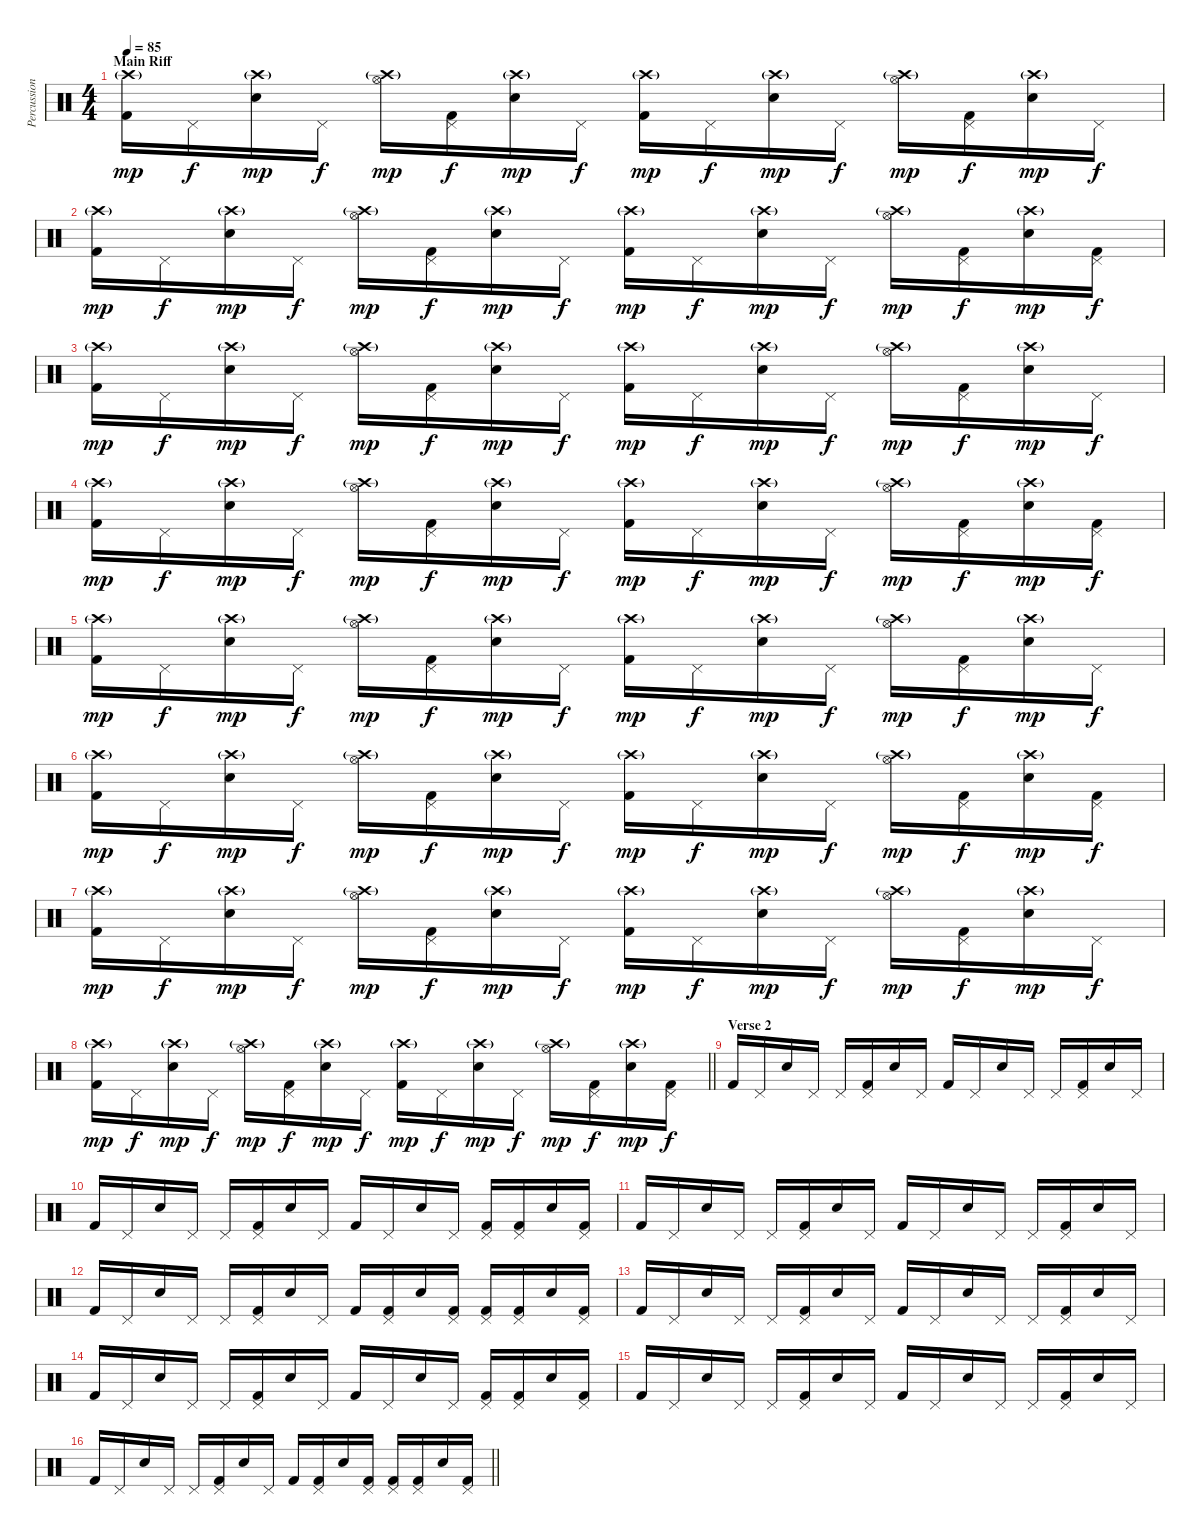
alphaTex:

\track ("Percussion" "Percussion") {instrument percussion}
\staff {score}
\articulation defaults
\ts (4 4)
\section ("" "Main Riff")
\tempo 85
\clef neutral
\ks c
("Crash high (hit)"{g} "Kick (hit) 2").16{dy mp} "Pedal Hi-Hat (hit)".16{dy f} ("Crash high (hit)"{g} "Snare (hit) 2").16{dy mp} "Pedal Hi-Hat (hit)".16{dy f} ("Crash high (hit)"{g} "Hi-Hat (open)").16{dy mp} ("Pedal Hi-Hat (hit)" "Kick (hit) 2").16{dy f} ("Crash high (hit)"{g} "Snare (hit) 2").16{dy mp} "Pedal Hi-Hat (hit)".16{dy f} ("Crash high (hit)"{g} "Kick (hit) 2").16{dy mp} "Pedal Hi-Hat (hit)".16{dy f} ("Crash high (hit)"{g} "Snare (hit) 2").16{dy mp} "Pedal Hi-Hat (hit)".16{dy f} ("Crash high (hit)"{g} "Hi-Hat (open)").16{dy mp} ("Pedal Hi-Hat (hit)" "Kick (hit) 2").16{dy f} ("Crash high (hit)"{g} "Snare (hit) 2").16{dy mp} "Pedal Hi-Hat (hit)".16{dy f} |
("Crash high (hit)"{g} "Kick (hit) 2").16{dy mp} "Pedal Hi-Hat (hit)".16{dy f} ("Crash high (hit)"{g} "Snare (hit) 2").16{dy mp} "Pedal Hi-Hat (hit)".16{dy f} ("Crash high (hit)"{g} "Hi-Hat (open)").16{dy mp} ("Pedal Hi-Hat (hit)" "Kick (hit) 2").16{dy f} ("Crash high (hit)"{g} "Snare (hit) 2").16{dy mp} "Pedal Hi-Hat (hit)".16{dy f} ("Crash high (hit)"{g} "Kick (hit) 2").16{dy mp} "Pedal Hi-Hat (hit)".16{dy f} ("Crash high (hit)"{g} "Snare (hit) 2").16{dy mp} "Pedal Hi-Hat (hit)".16{dy f} ("Crash high (hit)"{g} "Hi-Hat (open)").16{dy mp} ("Pedal Hi-Hat (hit)" "Kick (hit) 2").16{dy f} ("Crash high (hit)"{g} "Snare (hit) 2").16{dy mp} ("Pedal Hi-Hat (hit)" "Kick (hit) 2").16{dy f} |
("Crash high (hit)"{g} "Kick (hit) 2").16{dy mp} "Pedal Hi-Hat (hit)".16{dy f} ("Crash high (hit)"{g} "Snare (hit) 2").16{dy mp} "Pedal Hi-Hat (hit)".16{dy f} ("Crash high (hit)"{g} "Hi-Hat (open)").16{dy mp} ("Pedal Hi-Hat (hit)" "Kick (hit) 2").16{dy f} ("Crash high (hit)"{g} "Snare (hit) 2").16{dy mp} "Pedal Hi-Hat (hit)".16{dy f} ("Crash high (hit)"{g} "Kick (hit) 2").16{dy mp} "Pedal Hi-Hat (hit)".16{dy f} ("Crash high (hit)"{g} "Snare (hit) 2").16{dy mp} "Pedal Hi-Hat (hit)".16{dy f} ("Crash high (hit)"{g} "Hi-Hat (open)").16{dy mp} ("Pedal Hi-Hat (hit)" "Kick (hit) 2").16{dy f} ("Crash high (hit)"{g} "Snare (hit) 2").16{dy mp} "Pedal Hi-Hat (hit)".16{dy f} |
("Crash high (hit)"{g} "Kick (hit) 2").16{dy mp} "Pedal Hi-Hat (hit)".16{dy f} ("Crash high (hit)"{g} "Snare (hit) 2").16{dy mp} "Pedal Hi-Hat (hit)".16{dy f} ("Crash high (hit)"{g} "Hi-Hat (open)").16{dy mp} ("Pedal Hi-Hat (hit)" "Kick (hit) 2").16{dy f} ("Crash high (hit)"{g} "Snare (hit) 2").16{dy mp} "Pedal Hi-Hat (hit)".16{dy f} ("Crash high (hit)"{g} "Kick (hit) 2").16{dy mp} "Pedal Hi-Hat (hit)".16{dy f} ("Crash high (hit)"{g} "Snare (hit) 2").16{dy mp} "Pedal Hi-Hat (hit)".16{dy f} ("Crash high (hit)"{g} "Hi-Hat (open)").16{dy mp} ("Pedal Hi-Hat (hit)" "Kick (hit) 2").16{dy f} ("Crash high (hit)"{g} "Snare (hit) 2").16{dy mp} ("Pedal Hi-Hat (hit)" "Kick (hit) 2").16{dy f} |
("Crash high (hit)"{g} "Kick (hit) 2").16{dy mp} "Pedal Hi-Hat (hit)".16{dy f} ("Crash high (hit)"{g} "Snare (hit) 2").16{dy mp} "Pedal Hi-Hat (hit)".16{dy f} ("Crash high (hit)"{g} "Hi-Hat (open)").16{dy mp} ("Pedal Hi-Hat (hit)" "Kick (hit) 2").16{dy f} ("Crash high (hit)"{g} "Snare (hit) 2").16{dy mp} "Pedal Hi-Hat (hit)".16{dy f} ("Crash high (hit)"{g} "Kick (hit) 2").16{dy mp} "Pedal Hi-Hat (hit)".16{dy f} ("Crash high (hit)"{g} "Snare (hit) 2").16{dy mp} "Pedal Hi-Hat (hit)".16{dy f} ("Crash high (hit)"{g} "Hi-Hat (open)").16{dy mp} ("Pedal Hi-Hat (hit)" "Kick (hit) 2").16{dy f} ("Crash high (hit)"{g} "Snare (hit) 2").16{dy mp} "Pedal Hi-Hat (hit)".16{dy f} |
("Crash high (hit)"{g} "Kick (hit) 2").16{dy mp} "Pedal Hi-Hat (hit)".16{dy f} ("Crash high (hit)"{g} "Snare (hit) 2").16{dy mp} "Pedal Hi-Hat (hit)".16{dy f} ("Crash high (hit)"{g} "Hi-Hat (open)").16{dy mp} ("Pedal Hi-Hat (hit)" "Kick (hit) 2").16{dy f} ("Crash high (hit)"{g} "Snare (hit) 2").16{dy mp} "Pedal Hi-Hat (hit)".16{dy f} ("Crash high (hit)"{g} "Kick (hit) 2").16{dy mp} "Pedal Hi-Hat (hit)".16{dy f} ("Crash high (hit)"{g} "Snare (hit) 2").16{dy mp} "Pedal Hi-Hat (hit)".16{dy f} ("Crash high (hit)"{g} "Hi-Hat (open)").16{dy mp} ("Pedal Hi-Hat (hit)" "Kick (hit) 2").16{dy f} ("Crash high (hit)"{g} "Snare (hit) 2").16{dy mp} ("Pedal Hi-Hat (hit)" "Kick (hit) 2").16{dy f} |
("Crash high (hit)"{g} "Kick (hit) 2").16{dy mp} "Pedal Hi-Hat (hit)".16{dy f} ("Crash high (hit)"{g} "Snare (hit) 2").16{dy mp} "Pedal Hi-Hat (hit)".16{dy f} ("Crash high (hit)"{g} "Hi-Hat (open)").16{dy mp} ("Pedal Hi-Hat (hit)" "Kick (hit) 2").16{dy f} ("Crash high (hit)"{g} "Snare (hit) 2").16{dy mp} "Pedal Hi-Hat (hit)".16{dy f} ("Crash high (hit)"{g} "Kick (hit) 2").16{dy mp} "Pedal Hi-Hat (hit)".16{dy f} ("Crash high (hit)"{g} "Snare (hit) 2").16{dy mp} "Pedal Hi-Hat (hit)".16{dy f} ("Crash high (hit)"{g} "Hi-Hat (open)").16{dy mp} ("Pedal Hi-Hat (hit)" "Kick (hit) 2").16{dy f} ("Crash high (hit)"{g} "Snare (hit) 2").16{dy mp} "Pedal Hi-Hat (hit)".16{dy f} |
\barLineRight lightlight
("Crash high (hit)"{g} "Kick (hit) 2").16{dy mp} "Pedal Hi-Hat (hit)".16{dy f} ("Crash high (hit)"{g} "Snare (hit) 2").16{dy mp} "Pedal Hi-Hat (hit)".16{dy f} ("Crash high (hit)"{g} "Hi-Hat (open)").16{dy mp} ("Pedal Hi-Hat (hit)" "Kick (hit) 2").16{dy f} ("Crash high (hit)"{g} "Snare (hit) 2").16{dy mp} "Pedal Hi-Hat (hit)".16{dy f} ("Crash high (hit)"{g} "Kick (hit) 2").16{dy mp} "Pedal Hi-Hat (hit)".16{dy f} ("Crash high (hit)"{g} "Snare (hit) 2").16{dy mp} "Pedal Hi-Hat (hit)".16{dy f} ("Crash high (hit)"{g} "Hi-Hat (open)").16{dy mp} ("Pedal Hi-Hat (hit)" "Kick (hit) 2").16{dy f} ("Crash high (hit)"{g} "Snare (hit) 2").16{dy mp} ("Pedal Hi-Hat (hit)" "Kick (hit) 2").16{dy f} |
\section ("" "Verse 2")
"Kick (hit) 2".16 "Pedal Hi-Hat (hit)".16 "Snare (hit) 2".16 "Pedal Hi-Hat (hit)".16 "Pedal Hi-Hat (hit)".16 ("Pedal Hi-Hat (hit)" "Kick (hit) 2").16 "Snare (hit) 2".16 "Pedal Hi-Hat (hit)".16 "Kick (hit) 2".16 "Pedal Hi-Hat (hit)".16 "Snare (hit) 2".16 "Pedal Hi-Hat (hit)".16 "Pedal Hi-Hat (hit)".16 ("Pedal Hi-Hat (hit)" "Kick (hit) 2").16 "Snare (hit) 2".16 "Pedal Hi-Hat (hit)".16 |
"Kick (hit) 2".16 "Pedal Hi-Hat (hit)".16 "Snare (hit) 2".16 "Pedal Hi-Hat (hit)".16 "Pedal Hi-Hat (hit)".16 ("Pedal Hi-Hat (hit)" "Kick (hit) 2").16 "Snare (hit) 2".16 "Pedal Hi-Hat (hit)".16 "Kick (hit) 2".16 "Pedal Hi-Hat (hit)".16 "Snare (hit) 2".16 "Pedal Hi-Hat (hit)".16 ("Pedal Hi-Hat (hit)" "Kick (hit) 2").16 ("Pedal Hi-Hat (hit)" "Kick (hit) 2").16 "Snare (hit) 2".16 ("Pedal Hi-Hat (hit)" "Kick (hit) 2").16 |
"Kick (hit) 2".16 "Pedal Hi-Hat (hit)".16 "Snare (hit) 2".16 "Pedal Hi-Hat (hit)".16 "Pedal Hi-Hat (hit)".16 ("Pedal Hi-Hat (hit)" "Kick (hit) 2").16 "Snare (hit) 2".16 "Pedal Hi-Hat (hit)".16 "Kick (hit) 2".16 "Pedal Hi-Hat (hit)".16 "Snare (hit) 2".16 "Pedal Hi-Hat (hit)".16 "Pedal Hi-Hat (hit)".16 ("Pedal Hi-Hat (hit)" "Kick (hit) 2").16 "Snare (hit) 2".16 "Pedal Hi-Hat (hit)".16 |
"Kick (hit) 2".16 "Pedal Hi-Hat (hit)".16 "Snare (hit) 2".16 "Pedal Hi-Hat (hit)".16 "Pedal Hi-Hat (hit)".16 ("Pedal Hi-Hat (hit)" "Kick (hit) 2").16 "Snare (hit) 2".16 "Pedal Hi-Hat (hit)".16 "Kick (hit) 2".16 ("Pedal Hi-Hat (hit)" "Kick (hit) 2").16 "Snare (hit) 2".16 ("Pedal Hi-Hat (hit)" "Kick (hit) 2").16 ("Pedal Hi-Hat (hit)" "Kick (hit) 2").16 ("Pedal Hi-Hat (hit)" "Kick (hit) 2").16 "Snare (hit) 2".16 ("Pedal Hi-Hat (hit)" "Kick (hit) 2").16 |
"Kick (hit) 2".16 "Pedal Hi-Hat (hit)".16 "Snare (hit) 2".16 "Pedal Hi-Hat (hit)".16 "Pedal Hi-Hat (hit)".16 ("Pedal Hi-Hat (hit)" "Kick (hit) 2").16 "Snare (hit) 2".16 "Pedal Hi-Hat (hit)".16 "Kick (hit) 2".16 "Pedal Hi-Hat (hit)".16 "Snare (hit) 2".16 "Pedal Hi-Hat (hit)".16 "Pedal Hi-Hat (hit)".16 ("Pedal Hi-Hat (hit)" "Kick (hit) 2").16 "Snare (hit) 2".16 "Pedal Hi-Hat (hit)".16 |
"Kick (hit) 2".16 "Pedal Hi-Hat (hit)".16 "Snare (hit) 2".16 "Pedal Hi-Hat (hit)".16 "Pedal Hi-Hat (hit)".16 ("Pedal Hi-Hat (hit)" "Kick (hit) 2").16 "Snare (hit) 2".16 "Pedal Hi-Hat (hit)".16 "Kick (hit) 2".16 "Pedal Hi-Hat (hit)".16 "Snare (hit) 2".16 "Pedal Hi-Hat (hit)".16 ("Pedal Hi-Hat (hit)" "Kick (hit) 2").16 ("Pedal Hi-Hat (hit)" "Kick (hit) 2").16 "Snare (hit) 2".16 ("Pedal Hi-Hat (hit)" "Kick (hit) 2").16 |
"Kick (hit) 2".16 "Pedal Hi-Hat (hit)".16 "Snare (hit) 2".16 "Pedal Hi-Hat (hit)".16 "Pedal Hi-Hat (hit)".16 ("Pedal Hi-Hat (hit)" "Kick (hit) 2").16 "Snare (hit) 2".16 "Pedal Hi-Hat (hit)".16 "Kick (hit) 2".16 "Pedal Hi-Hat (hit)".16 "Snare (hit) 2".16 "Pedal Hi-Hat (hit)".16 "Pedal Hi-Hat (hit)".16 ("Pedal Hi-Hat (hit)" "Kick (hit) 2").16 "Snare (hit) 2".16 "Pedal Hi-Hat (hit)".16 |
\barLineRight lightlight "Kick (hit) 2".16 "Pedal Hi-Hat (hit)".16 "Snare (hit) 2".16 "Pedal Hi-Hat (hit)".16 "Pedal Hi-Hat (hit)".16
("Pedal Hi-Hat (hit)" "Kick (hit) 2").16 "Snare (hit) 2".16 "Pedal Hi-Hat (hit)".16 "Kick (hit) 2".16 ("Pedal Hi-Hat (hit)" "Kick (hit) 2").16 "Snare (hit) 2".16 ("Pedal Hi-Hat (hit)" "Kick (hit) 2").16 ("Pedal Hi-Hat (hit)" "Kick (hit) 2").16 ("Pedal Hi-Hat (hit)" "Kick (hit) 2").16 "Snare (hit) 2".16 ("Pedal Hi-Hat (hit)" "Kick (hit) 2").16
